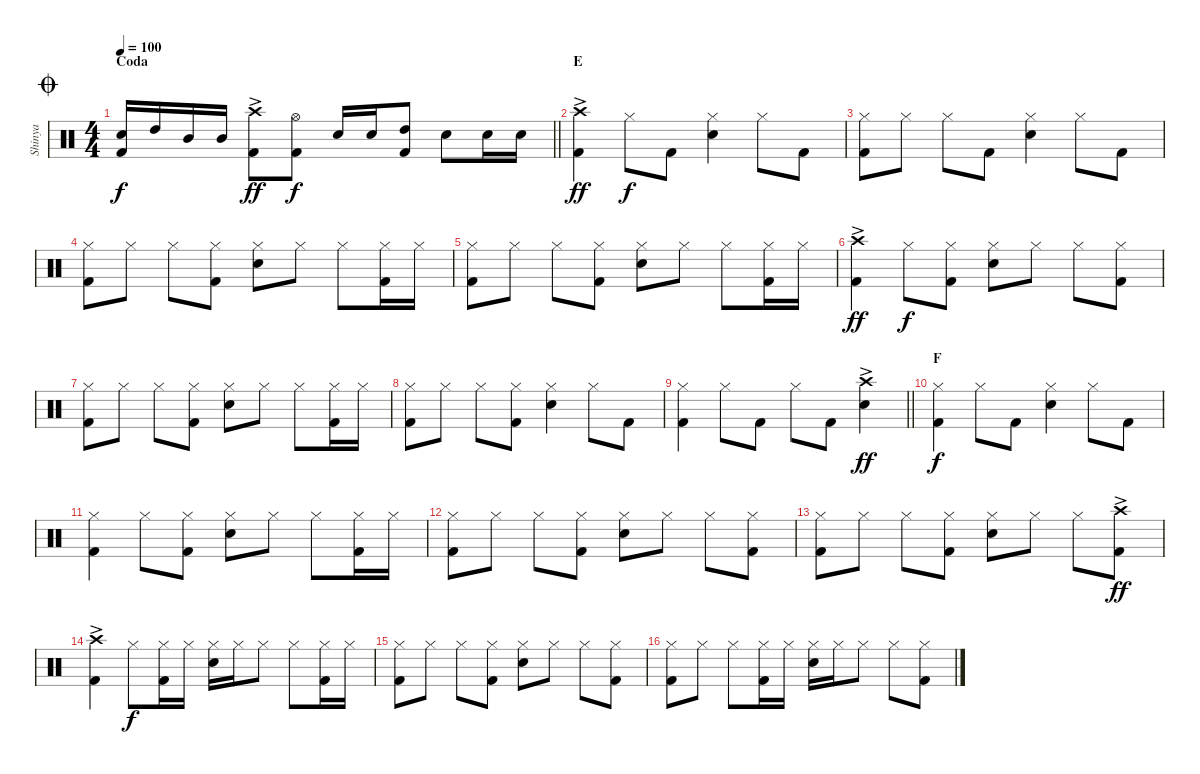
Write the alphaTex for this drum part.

\track ("Shinya" "Shinya") {instrument percussion}
\staff {score}
\articulation defaults
\ts (4 4)
\section ("" "Coda")
\jump coda
\tempo 100
\clef neutral
\barLineRight lightlight
\ks c
("Snare (hit) 2" "Kick (hit) 2").16{dy f} "High Tom (hit)".16 "Mid Tom (hit)".16 "Mid Tom (hit)".16 ("Crash high (hit)"{ac} "Kick (hit) 2").8{dy ff} ("Hi-Hat (open)" "Kick (hit) 2").8{dy f} "Snare (hit) 2".16 "Snare (hit) 2".16 ("High Tom (hit)" "Kick (hit) 2").8 "Snare (hit) 2".8 "Snare (hit) 2".16 "Snare (hit) 2".16 |
\section ("" "E")
("Crash high (hit)"{ac} "Kick (hit) 2").4{dy ff} "Hi-Hat (closed)".8{dy f} "Kick (hit) 2".8 ("Hi-Hat (closed)" "Snare (hit) 2").4 "Hi-Hat (closed)".8 "Kick (hit) 2".8 |
("Hi-Hat (closed)" "Kick (hit) 2").8 "Hi-Hat (closed)".8 "Hi-Hat (closed)".8 "Kick (hit) 2".8 ("Hi-Hat (closed)" "Snare (hit) 2").4 "Hi-Hat (closed)".8 "Kick (hit) 2".8 |
("Hi-Hat (closed)" "Kick (hit) 2").8 "Hi-Hat (closed)".8 "Hi-Hat (closed)".8 ("Hi-Hat (closed)" "Kick (hit) 2").8 ("Hi-Hat (closed)" "Snare (hit) 2").8 "Hi-Hat (closed)".8 "Hi-Hat (closed)".8 ("Hi-Hat (closed)" "Kick (hit) 2").16 "Hi-Hat (closed)".16 |
("Hi-Hat (closed)" "Kick (hit) 2").8 "Hi-Hat (closed)".8 "Hi-Hat (closed)".8 ("Hi-Hat (closed)" "Kick (hit) 2").8 ("Hi-Hat (closed)" "Snare (hit) 2").8 "Hi-Hat (closed)".8 "Hi-Hat (closed)".8 ("Hi-Hat (closed)" "Kick (hit) 2").16 "Hi-Hat (closed)".16 |
("Crash high (hit)"{ac} "Kick (hit) 2").4{dy ff} "Hi-Hat (closed)".8{dy f} ("Hi-Hat (closed)" "Kick (hit) 2").8 ("Hi-Hat (closed)" "Snare (hit) 2").8 "Hi-Hat (closed)".8 "Hi-Hat (closed)".8 ("Hi-Hat (closed)" "Kick (hit) 2").8 |
("Hi-Hat (closed)" "Kick (hit) 2").8 "Hi-Hat (closed)".8 "Hi-Hat (closed)".8 ("Hi-Hat (closed)" "Kick (hit) 2").8 ("Hi-Hat (closed)" "Snare (hit) 2").8 "Hi-Hat (closed)".8 "Hi-Hat (closed)".8 ("Hi-Hat (closed)" "Kick (hit) 2").16 "Hi-Hat (closed)".16 |
("Hi-Hat (closed)" "Kick (hit) 2").8 "Hi-Hat (closed)".8 "Hi-Hat (closed)".8 ("Hi-Hat (closed)" "Kick (hit) 2").8 ("Hi-Hat (closed)" "Snare (hit) 2").4 "Hi-Hat (closed)".8 "Kick (hit) 2".8 |
\barLineRight lightlight
("Hi-Hat (closed)" "Kick (hit) 2").4 "Hi-Hat (closed)".8 "Kick (hit) 2".8 "Hi-Hat (closed)".8 "Kick (hit) 2".8 ("Crash high (hit)"{ac} "Snare (hit) 2").4{dy ff} |
\section ("" "F")
("Hi-Hat (closed)" "Kick (hit) 2").4{dy f} "Hi-Hat (closed)".8 "Kick (hit) 2".8 ("Hi-Hat (closed)" "Snare (hit) 2").4 "Hi-Hat (closed)".8 "Kick (hit) 2".8 |
("Hi-Hat (closed)" "Kick (hit) 2").4 "Hi-Hat (closed)".8 ("Hi-Hat (closed)" "Kick (hit) 2").8 ("Hi-Hat (closed)" "Snare (hit) 2").8 "Hi-Hat (closed)".8 "Hi-Hat (closed)".8 ("Hi-Hat (closed)" "Kick (hit) 2").16 "Hi-Hat (closed)".16 |
("Hi-Hat (closed)" "Kick (hit) 2").8 "Hi-Hat (closed)".8 "Hi-Hat (closed)".8 ("Hi-Hat (closed)" "Kick (hit) 2").8 ("Hi-Hat (closed)" "Snare (hit) 2").8 "Hi-Hat (closed)".8 "Hi-Hat (closed)".8 ("Hi-Hat (closed)" "Kick (hit) 2").8 |
("Hi-Hat (closed)" "Kick (hit) 2").8 "Hi-Hat (closed)".8 "Hi-Hat (closed)".8 ("Hi-Hat (closed)" "Kick (hit) 2").8 ("Hi-Hat (closed)" "Snare (hit) 2").8 "Hi-Hat (closed)".8 "Hi-Hat (closed)".8 ("Crash high (hit)"{ac} "Kick (hit) 2").8{dy ff} |
("Crash high (hit)"{ac} "Kick (hit) 2").4 "Hi-Hat (closed)".8{dy f} ("Hi-Hat (closed)" "Kick (hit) 2").16 "Hi-Hat (closed)".16 ("Hi-Hat (closed)" "Snare (hit) 2").16 "Hi-Hat (closed)".16 "Hi-Hat (closed)".8 "Hi-Hat (closed)".8 ("Hi-Hat (closed)" "Kick (hit) 2").16 "Hi-Hat (closed)".16 |
("Hi-Hat (closed)" "Kick (hit) 2").8 "Hi-Hat (closed)".8 "Hi-Hat (closed)".8 ("Hi-Hat (closed)" "Kick (hit) 2").8 ("Hi-Hat (closed)" "Snare (hit) 2").8 "Hi-Hat (closed)".8 "Hi-Hat (closed)".8 ("Hi-Hat (closed)" "Kick (hit) 2").8 |
("Hi-Hat (closed)" "Kick (hit) 2").8 "Hi-Hat (closed)".8 "Hi-Hat (closed)".8 ("Hi-Hat (closed)" "Kick (hit) 2").16 "Hi-Hat (closed)".16 ("Hi-Hat (closed)" "Snare (hit) 2").16 "Hi-Hat (closed)".16 "Hi-Hat (closed)".8 "Hi-Hat (closed)".8 ("Hi-Hat (closed)" "Kick (hit) 2").8
